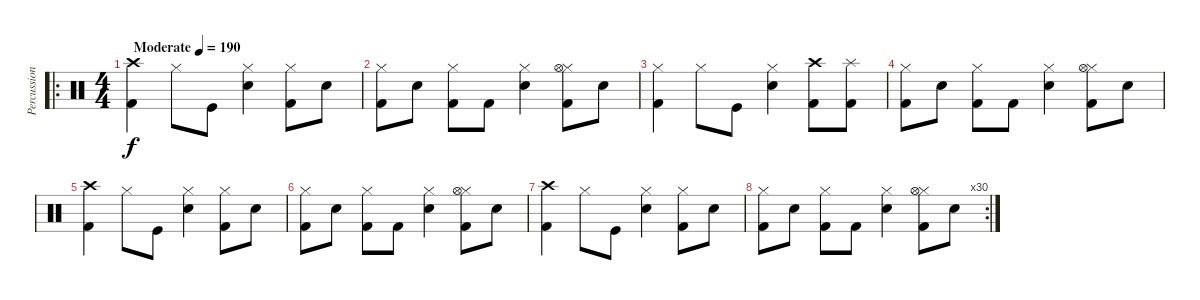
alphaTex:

\track ("Percussion" "Percussion") {instrument percussion}
\staff {score}
\articulation defaults
\ro
\ts (4 4)
\tempo (190 "Moderate")
\clef neutral
\ks c
("Kick (hit) 2" "Crash high (hit)").4{dy f} "Hi-Hat (closed)".8 "Kick (hit)".8 ("Electric Snare (hit)" "Hi-Hat (closed)").4 ("Kick (hit) 2" "Hi-Hat (closed)").8 "Electric Snare (hit)".8 |
("Kick (hit) 2" "Hi-Hat (closed)").8 "Electric Snare (hit)".8 ("Kick (hit) 2" "Hi-Hat (closed)").8 "Kick (hit) 2".8 ("Electric Snare (hit)" "Hi-Hat (closed)").4 ("Kick (hit) 2" "Hi-Hat (closed)" "Hi-Hat (open)").8 "Electric Snare (hit)".8 |
("Kick (hit) 2" "Hi-Hat (closed)").4 "Hi-Hat (closed)".8 "Kick (hit)".8 ("Electric Snare (hit)" "Hi-Hat (closed)").4 ("Kick (hit) 2" "Crash high (hit)").8 ("Kick (hit) 2" "Splash (hit)").8 |
("Kick (hit) 2" "Hi-Hat (closed)").8 "Electric Snare (hit)".8 ("Kick (hit) 2" "Hi-Hat (closed)").8 "Kick (hit) 2".8 ("Electric Snare (hit)" "Hi-Hat (closed)").4 ("Kick (hit) 2" "Hi-Hat (closed)" "Hi-Hat (open)").8 "Electric Snare (hit)".8 |
("Kick (hit) 2" "Crash high (hit)").4 "Hi-Hat (closed)".8 "Kick (hit)".8 ("Electric Snare (hit)" "Hi-Hat (closed)").4 ("Kick (hit) 2" "Hi-Hat (closed)").8 "Electric Snare (hit)".8 |
("Kick (hit) 2" "Hi-Hat (closed)").8 "Electric Snare (hit)".8 ("Kick (hit) 2" "Hi-Hat (closed)").8 "Kick (hit) 2".8 ("Electric Snare (hit)" "Hi-Hat (closed)").4 ("Kick (hit) 2" "Hi-Hat (closed)" "Hi-Hat (open)").8 "Electric Snare (hit)".8 |
("Kick (hit) 2" "Crash high (hit)").4 "Hi-Hat (closed)".8 "Kick (hit)".8 ("Electric Snare (hit)" "Hi-Hat (closed)").4 ("Kick (hit) 2" "Hi-Hat (closed)").8 "Electric Snare (hit)".8 |
\rc 30
("Kick (hit) 2" "Hi-Hat (closed)").8 "Electric Snare (hit)".8 ("Kick (hit) 2" "Hi-Hat (closed)").8 "Kick (hit) 2".8 ("Electric Snare (hit)" "Hi-Hat (closed)").4 ("Kick (hit) 2" "Hi-Hat (closed)" "Hi-Hat (open)").8 "Electric Snare (hit)".8
